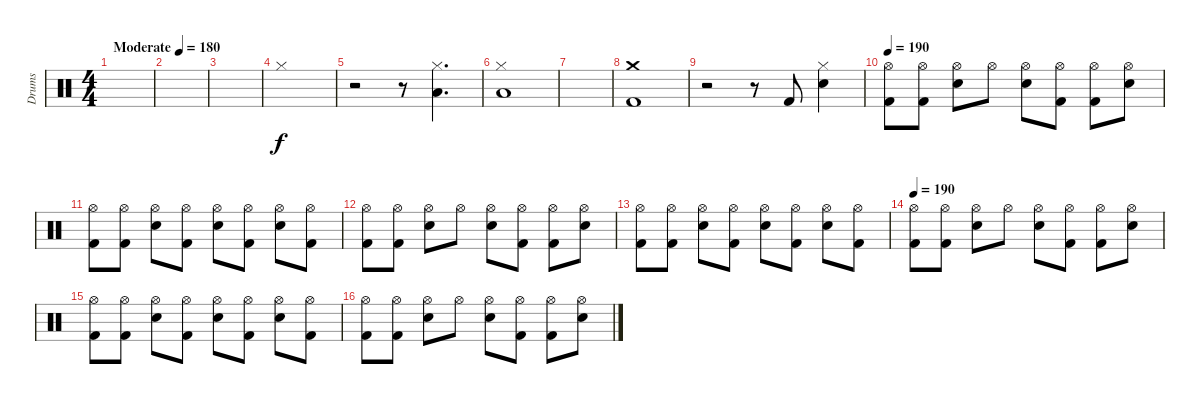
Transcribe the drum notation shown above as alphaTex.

\track ("Drums" "Drums") {instrument percussion}
\staff {score}
\articulation defaults
\ts (4 4)
\tempo (180 "Moderate")
\clef neutral
\ks c
|
|
|
"Hi-Hat (closed)".1 |
r.2 r.8 ("Low Tom (hit)" "Hi-Hat (closed)").4{d} |
("Low Floor Tom (hit)" "Hi-Hat (closed)").1 |
|
("Kick (hit) 2" "Crash medium (hit)").1 |
r.2 r.8 "Kick (hit) 2".8 ("Snare (hit) 2" "Hi-Hat (closed)").4 |
\tempo 190
("Kick (hit) 2" "Hi-Hat (open)").8 ("Kick (hit) 2" "Hi-Hat (open)").8 ("Snare (hit) 2" "Hi-Hat (open)").8 "Hi-Hat (open)".8 ("Snare (hit) 2" "Hi-Hat (open)").8 ("Kick (hit) 2" "Hi-Hat (open)").8 ("Kick (hit) 2" "Hi-Hat (open)").8 ("Snare (hit) 2" "Hi-Hat (open)").8 |
("Kick (hit) 2" "Hi-Hat (open)").8 ("Kick (hit) 2" "Hi-Hat (open)").8 ("Snare (hit) 2" "Hi-Hat (open)").8 ("Kick (hit) 2" "Hi-Hat (open)").8 ("Snare (hit) 2" "Hi-Hat (open)").8 ("Kick (hit) 2" "Hi-Hat (open)").8 ("Snare (hit) 2" "Hi-Hat (open)").8 ("Kick (hit) 2" "Hi-Hat (open)").8 |
("Kick (hit) 2" "Hi-Hat (open)").8 ("Kick (hit) 2" "Hi-Hat (open)").8 ("Snare (hit) 2" "Hi-Hat (open)").8 "Hi-Hat (open)".8 ("Snare (hit) 2" "Hi-Hat (open)").8 ("Kick (hit) 2" "Hi-Hat (open)").8 ("Kick (hit) 2" "Hi-Hat (open)").8 ("Snare (hit) 2" "Hi-Hat (open)").8 |
("Kick (hit) 2" "Hi-Hat (open)").8 ("Kick (hit) 2" "Hi-Hat (open)").8 ("Snare (hit) 2" "Hi-Hat (open)").8 ("Kick (hit) 2" "Hi-Hat (open)").8 ("Snare (hit) 2" "Hi-Hat (open)").8 ("Kick (hit) 2" "Hi-Hat (open)").8 ("Snare (hit) 2" "Hi-Hat (open)").8 ("Kick (hit) 2" "Hi-Hat (open)").8 |
\tempo 190
("Kick (hit) 2" "Hi-Hat (open)").8 ("Kick (hit) 2" "Hi-Hat (open)").8 ("Snare (hit) 2" "Hi-Hat (open)").8 "Hi-Hat (open)".8 ("Snare (hit) 2" "Hi-Hat (open)").8 ("Kick (hit) 2" "Hi-Hat (open)").8 ("Kick (hit) 2" "Hi-Hat (open)").8 ("Snare (hit) 2" "Hi-Hat (open)").8 |
("Kick (hit) 2" "Hi-Hat (open)").8 ("Kick (hit) 2" "Hi-Hat (open)").8 ("Snare (hit) 2" "Hi-Hat (open)").8 ("Kick (hit) 2" "Hi-Hat (open)").8 ("Snare (hit) 2" "Hi-Hat (open)").8 ("Kick (hit) 2" "Hi-Hat (open)").8 ("Snare (hit) 2" "Hi-Hat (open)").8 ("Kick (hit) 2" "Hi-Hat (open)").8 |
("Kick (hit) 2" "Hi-Hat (open)").8 ("Kick (hit) 2" "Hi-Hat (open)").8 ("Snare (hit) 2" "Hi-Hat (open)").8 "Hi-Hat (open)".8 ("Snare (hit) 2" "Hi-Hat (open)").8 ("Kick (hit) 2" "Hi-Hat (open)").8 ("Kick (hit) 2" "Hi-Hat (open)").8 ("Snare (hit) 2" "Hi-Hat (open)").8
